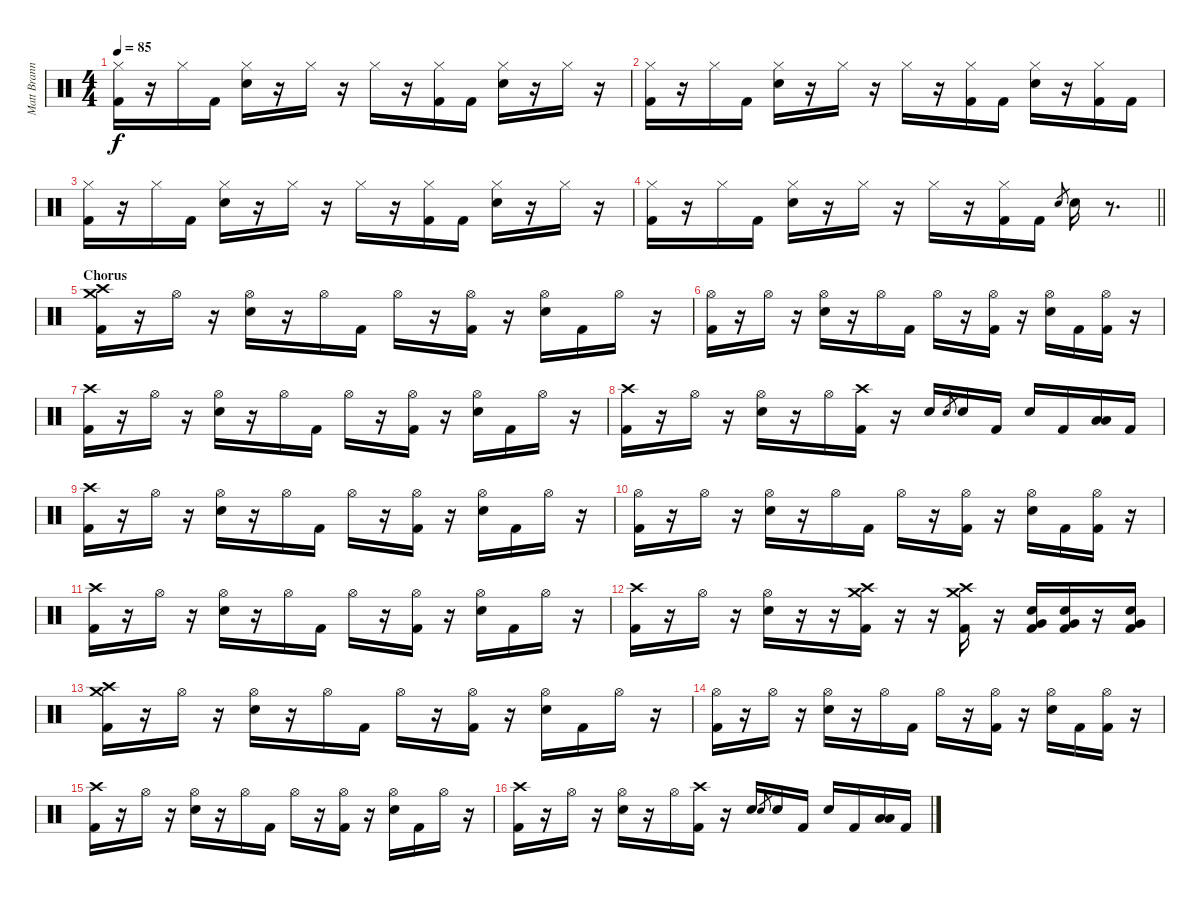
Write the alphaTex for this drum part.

\track ("Matt Brann" "Matt Brann") {instrument percussion}
\staff {score}
\articulation defaults
\ts (4 4)
\tempo 85
\clef neutral
\ks c
("Hi-Hat (closed)" "Kick (hit) 2").16{dy f} r.16 "Hi-Hat (closed)".16 "Kick (hit) 2".16 ("Hi-Hat (closed)" "Snare (hit) 2").16 r.16 "Hi-Hat (closed)".16 r.16 "Hi-Hat (closed)".16 r.16 ("Hi-Hat (closed)" "Kick (hit) 2").16 "Kick (hit) 2".16 ("Hi-Hat (closed)" "Snare (hit) 2").16 r.16 "Hi-Hat (closed)".16 r.16 |
("Hi-Hat (closed)" "Kick (hit) 2").16 r.16 "Hi-Hat (closed)".16 "Kick (hit) 2".16 ("Hi-Hat (closed)" "Snare (hit) 2").16 r.16 "Hi-Hat (closed)".16 r.16 "Hi-Hat (closed)".16 r.16 ("Hi-Hat (closed)" "Kick (hit) 2").16 "Kick (hit) 2".16 ("Hi-Hat (closed)" "Snare (hit) 2").16 r.16 ("Hi-Hat (closed)" "Kick (hit) 2").16 "Kick (hit) 2".16 |
("Hi-Hat (closed)" "Kick (hit) 2").16 r.16 "Hi-Hat (closed)".16 "Kick (hit) 2".16 ("Hi-Hat (closed)" "Snare (hit) 2").16 r.16 "Hi-Hat (closed)".16 r.16 "Hi-Hat (closed)".16 r.16 ("Hi-Hat (closed)" "Kick (hit) 2").16 "Kick (hit) 2".16 ("Hi-Hat (closed)" "Snare (hit) 2").16 r.16 "Hi-Hat (closed)".16 r.16 |
\barLineRight lightlight
("Hi-Hat (closed)" "Kick (hit) 2").16 r.16 "Hi-Hat (closed)".16 "Kick (hit) 2".16 ("Hi-Hat (closed)" "Snare (hit) 2").16 r.16 "Hi-Hat (closed)".16 r.16 "Hi-Hat (closed)".16 r.16 ("Hi-Hat (closed)" "Kick (hit) 2").16 "Kick (hit) 2".16 "Electric Snare (hit)".8{gr} "Electric Snare (hit)".16 r.8{d} |
\section ("" "Chorus")
("Crash high (hit)" "Crash medium (hit)" "Kick (hit) 2").16 r.16 "Hi-Hat (open)".16 r.16 ("Hi-Hat (open)" "Electric Snare (hit)").16 r.16 "Hi-Hat (open)".16 "Kick (hit) 2".16 "Hi-Hat (open)".16 r.16 ("Hi-Hat (open)" "Kick (hit) 2").16 r.16 ("Hi-Hat (open)" "Electric Snare (hit)").16 "Kick (hit) 2".16 "Hi-Hat (open)".16 r.16 |
("Hi-Hat (open)" "Kick (hit) 2").16 r.16 "Hi-Hat (open)".16 r.16 ("Hi-Hat (open)" "Electric Snare (hit)").16 r.16 "Hi-Hat (open)".16 "Kick (hit) 2".16 "Hi-Hat (open)".16 r.16 ("Hi-Hat (open)" "Kick (hit) 2").16 r.16 ("Hi-Hat (open)" "Electric Snare (hit)").16 "Kick (hit) 2".16 ("Hi-Hat (open)" "Kick (hit) 2").16 r.16 |
("Crash high (hit)" "Kick (hit) 2").16 r.16 "Hi-Hat (open)".16 r.16 ("Hi-Hat (open)" "Electric Snare (hit)").16 r.16 "Hi-Hat (open)".16 "Kick (hit) 2".16 "Hi-Hat (open)".16 r.16 ("Hi-Hat (open)" "Kick (hit) 2").16 r.16 ("Hi-Hat (open)" "Electric Snare (hit)").16 "Kick (hit) 2".16 "Hi-Hat (open)".16 r.16 |
("Crash high (hit)" "Kick (hit) 2").16 r.16 "Hi-Hat (open)".16 r.16 ("Hi-Hat (open)" "Electric Snare (hit)").16 r.16 "Hi-Hat (open)".16 ("Crash high (hit)" "Kick (hit) 2").16 r.16 "Electric Snare (hit)".16 "Electric Snare (hit)".8{gr} "Electric Snare (hit)".16 "Kick (hit) 2".16 "Electric Snare (hit)".16 "Kick (hit) 2".16 ("Low Tom (hit)" "Low Floor Tom (hit)").16 "Kick (hit) 2".16 |
("Crash high (hit)" "Kick (hit) 2").16 r.16 "Hi-Hat (open)".16 r.16 ("Hi-Hat (open)" "Electric Snare (hit)").16 r.16 "Hi-Hat (open)".16 "Kick (hit) 2".16 "Hi-Hat (open)".16 r.16 ("Hi-Hat (open)" "Kick (hit) 2").16 r.16 ("Hi-Hat (open)" "Electric Snare (hit)").16 "Kick (hit) 2".16 "Hi-Hat (open)".16 r.16 |
("Hi-Hat (open)" "Kick (hit) 2").16 r.16 "Hi-Hat (open)".16 r.16 ("Hi-Hat (open)" "Electric Snare (hit)").16 r.16 "Hi-Hat (open)".16 "Kick (hit) 2".16 "Hi-Hat (open)".16 r.16 ("Hi-Hat (open)" "Kick (hit) 2").16 r.16 ("Hi-Hat (open)" "Electric Snare (hit)").16 "Kick (hit) 2".16 ("Hi-Hat (open)" "Kick (hit) 2").16 r.16 |
("Crash high (hit)" "Kick (hit) 2").16 r.16 "Hi-Hat (open)".16 r.16 ("Hi-Hat (open)" "Electric Snare (hit)").16 r.16 "Hi-Hat (open)".16 "Kick (hit) 2".16 "Hi-Hat (open)".16 r.16 ("Hi-Hat (open)" "Kick (hit) 2").16 r.16 ("Hi-Hat (open)" "Electric Snare (hit)").16 "Kick (hit) 2".16 "Hi-Hat (open)".16 r.16 |
("Crash high (hit)" "Kick (hit) 2").16 r.16 "Hi-Hat (open)".16 r.16 ("Hi-Hat (open)" "Electric Snare (hit)").16 r.16 r.16 ("Crash high (hit)" "Crash medium (hit)" "Kick (hit) 2").16 r.16 r.16 ("Crash high (hit)" "Crash medium (hit)" "Kick (hit) 2").16 r.16 ("Very Low Tom (hit)" "Electric Snare (hit)" "Kick (hit) 2").16 ("Very Low Tom (hit)" "Electric Snare (hit)" "Kick (hit) 2").16 r.16 ("Very Low Tom (hit)" "Electric Snare (hit)" "Kick (hit) 2").16 |
("Crash high (hit)" "Crash medium (hit)" "Kick (hit) 2").16 r.16 "Hi-Hat (open)".16 r.16 ("Hi-Hat (open)" "Electric Snare (hit)").16 r.16 "Hi-Hat (open)".16 "Kick (hit) 2".16 "Hi-Hat (open)".16 r.16 ("Hi-Hat (open)" "Kick (hit) 2").16 r.16 ("Hi-Hat (open)" "Electric Snare (hit)").16 "Kick (hit) 2".16 "Hi-Hat (open)".16 r.16 |
("Hi-Hat (open)" "Kick (hit) 2").16 r.16 "Hi-Hat (open)".16 r.16 ("Hi-Hat (open)" "Electric Snare (hit)").16 r.16 "Hi-Hat (open)".16 "Kick (hit) 2".16 "Hi-Hat (open)".16 r.16 ("Hi-Hat (open)" "Kick (hit) 2").16 r.16 ("Hi-Hat (open)" "Electric Snare (hit)").16 "Kick (hit) 2".16 ("Hi-Hat (open)" "Kick (hit) 2").16 r.16 |
("Crash high (hit)" "Kick (hit) 2").16 r.16 "Hi-Hat (open)".16 r.16 ("Hi-Hat (open)" "Electric Snare (hit)").16 r.16 "Hi-Hat (open)".16 "Kick (hit) 2".16 "Hi-Hat (open)".16 r.16 ("Hi-Hat (open)" "Kick (hit) 2").16 r.16 ("Hi-Hat (open)" "Electric Snare (hit)").16 "Kick (hit) 2".16 "Hi-Hat (open)".16 r.16 |
("Crash high (hit)" "Kick (hit) 2").16 r.16 "Hi-Hat (open)".16 r.16 ("Hi-Hat (open)" "Electric Snare (hit)").16 r.16 "Hi-Hat (open)".16 ("Crash high (hit)" "Kick (hit) 2").16 r.16 "Electric Snare (hit)".16 "Electric Snare (hit)".8{gr} "Electric Snare (hit)".16 "Kick (hit) 2".16 "Electric Snare (hit)".16 "Kick (hit) 2".16 ("Low Tom (hit)" "Low Floor Tom (hit)").16 "Kick (hit) 2".16
